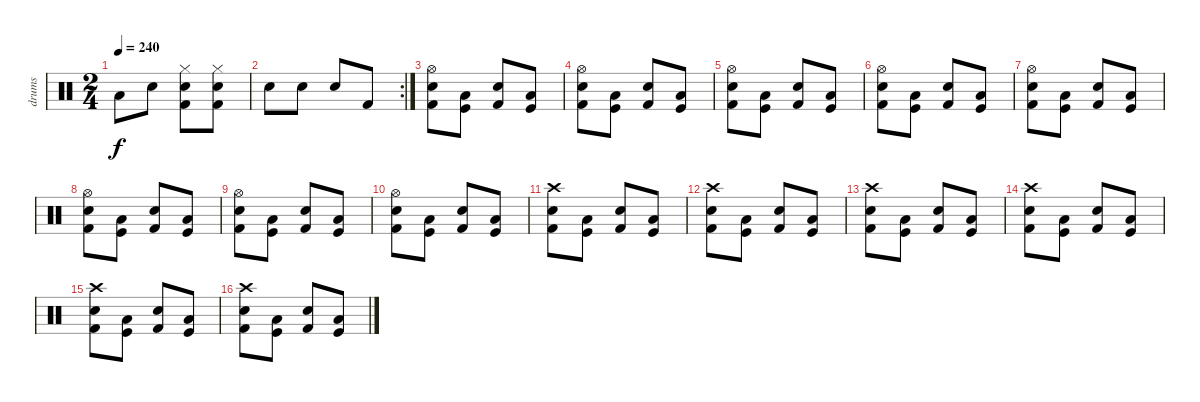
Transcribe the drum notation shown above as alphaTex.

\track ("drums" "drums") {instrument percussion}
\staff {score}
\articulation defaults
\ts (2 4)
\tempo 240
\clef neutral
\ks c "Low Tom (hit)".8{dy f} "Snare (hit) 2".8
("Hi-Hat (closed)" "Electric Snare (hit)" "Kick (hit) 2").8 ("Hi-Hat (closed)" "Electric Snare (hit)" "Kick (hit) 2").8 |
\rc 2 "Snare (hit) 2".8 "Electric Snare (hit)".8 "Electric Snare (hit)".8 "Kick (hit) 2".8
|
("Hi-Hat (open)" "Snare (hit) 2" "Kick (hit) 2").8 ("Low Tom (hit)" "Kick (hit)").8 ("Snare (hit) 2" "Kick (hit) 2").8 ("Low Tom (hit)" "Kick (hit)").8 |
("Hi-Hat (open)" "Snare (hit) 2" "Kick (hit) 2").8 ("Low Tom (hit)" "Kick (hit)").8 ("Snare (hit) 2" "Kick (hit) 2").8 ("Low Tom (hit)" "Kick (hit)").8 |
("Hi-Hat (open)" "Snare (hit) 2" "Kick (hit) 2").8 ("Low Tom (hit)" "Kick (hit)").8 ("Snare (hit) 2" "Kick (hit) 2").8 ("Low Tom (hit)" "Kick (hit)").8 |
("Hi-Hat (open)" "Snare (hit) 2" "Kick (hit) 2").8 ("Low Tom (hit)" "Kick (hit)").8 ("Snare (hit) 2" "Kick (hit) 2").8 ("Low Tom (hit)" "Kick (hit)").8 |
("Hi-Hat (open)" "Snare (hit) 2" "Kick (hit) 2").8 ("Low Tom (hit)" "Kick (hit)").8 ("Snare (hit) 2" "Kick (hit) 2").8 ("Low Tom (hit)" "Kick (hit)").8 |
("Hi-Hat (open)" "Snare (hit) 2" "Kick (hit) 2").8 ("Low Tom (hit)" "Kick (hit)").8 ("Snare (hit) 2" "Kick (hit) 2").8 ("Low Tom (hit)" "Kick (hit)").8 |
("Hi-Hat (open)" "Snare (hit) 2" "Kick (hit) 2").8 ("Low Tom (hit)" "Kick (hit)").8 ("Snare (hit) 2" "Kick (hit) 2").8 ("Low Tom (hit)" "Kick (hit)").8 |
("Hi-Hat (open)" "Snare (hit) 2" "Kick (hit) 2").8 ("Low Tom (hit)" "Kick (hit)").8 ("Snare (hit) 2" "Kick (hit) 2").8 ("Low Tom (hit)" "Kick (hit)").8 |
("Crash high (hit)" "Snare (hit) 2" "Kick (hit) 2").8 ("Low Tom (hit)" "Kick (hit)").8 ("Snare (hit) 2" "Kick (hit) 2").8 ("Low Tom (hit)" "Kick (hit)").8 |
("Crash high (hit)" "Snare (hit) 2" "Kick (hit) 2").8 ("Low Tom (hit)" "Kick (hit)").8 ("Snare (hit) 2" "Kick (hit) 2").8 ("Low Tom (hit)" "Kick (hit)").8 |
("Crash high (hit)" "Snare (hit) 2" "Kick (hit) 2").8 ("Low Tom (hit)" "Kick (hit)").8 ("Snare (hit) 2" "Kick (hit) 2").8 ("Low Tom (hit)" "Kick (hit)").8 |
("Crash high (hit)" "Snare (hit) 2" "Kick (hit) 2").8 ("Low Tom (hit)" "Kick (hit)").8 ("Snare (hit) 2" "Kick (hit) 2").8 ("Low Tom (hit)" "Kick (hit)").8 |
("Crash high (hit)" "Snare (hit) 2" "Kick (hit) 2").8 ("Low Tom (hit)" "Kick (hit)").8 ("Snare (hit) 2" "Kick (hit) 2").8 ("Low Tom (hit)" "Kick (hit)").8 |
("Crash high (hit)" "Snare (hit) 2" "Kick (hit) 2").8 ("Low Tom (hit)" "Kick (hit)").8 ("Snare (hit) 2" "Kick (hit) 2").8 ("Low Tom (hit)" "Kick (hit)").8
